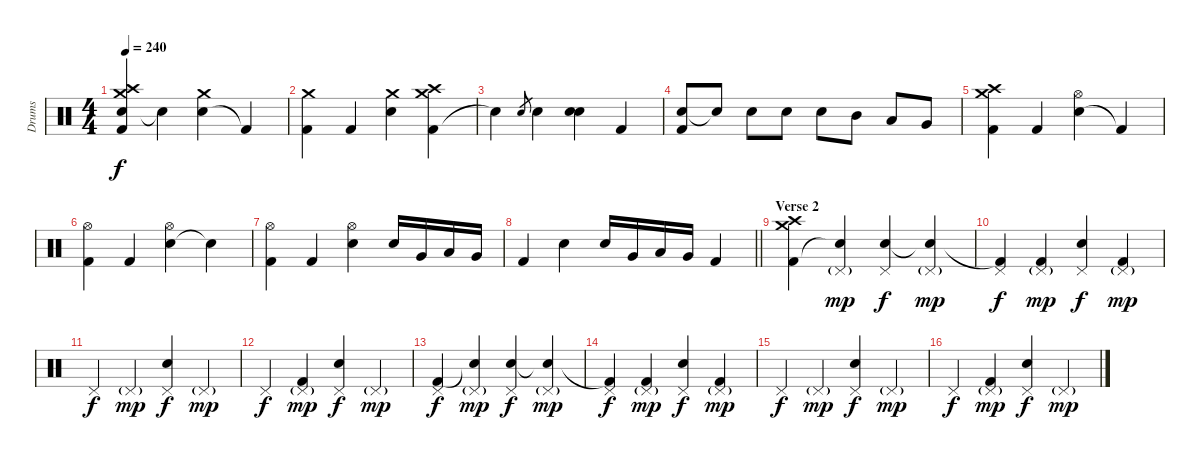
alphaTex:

\track ("Drums" "Drums") {instrument percussion}
\staff {score}
\articulation defaults
\ts (4 4)
\tempo 240
\clef neutral
\ks c
("Electric Snare (hit)" "Crash medium (hit)" "Crash high (hit)" "Kick (hit) 2").4{dy f} "Electric Snare (hit)"{t}.4 ("Electric Snare (hit)" "Crash medium (hit)").4 "Kick (hit) 2"{t}.4 |
("Kick (hit) 2" "Crash medium (hit)").4 "Kick (hit) 2".4 ("Electric Snare (hit)" "Crash medium (hit)").4 ("Kick (hit) 2" "Crash medium (hit)" "Crash high (hit)").4 |
"Snare (hit)"{t}.4 "Electric Snare (hit)".8{gr} "Electric Snare (hit)".4 ("Electric Snare (hit)" "Electric Snare (hit)").4 "Kick (hit) 2".4 |
("Electric Snare (hit)" "Kick (hit) 2").8 "Snare (hit)"{t}.8 "Electric Snare (hit)".8 "Electric Snare (hit)".8 "Electric Snare (hit)".8 "Mid Tom (hit)".8 "Low Tom (hit)".8 "Very Low Tom (hit)".8 |
("Kick (hit) 2" "Crash medium (hit)" "Crash high (hit)").4 "Kick (hit) 2".4 ("Electric Snare (hit)" "Hi-Hat (open)").4 "Kick (hit) 2"{t}.4 |
("Kick (hit) 2" "Hi-Hat (open)").4 "Kick (hit) 2".4 ("Electric Snare (hit)" "Hi-Hat (open)").4 "Snare (hit)"{t}.4 |
("Kick (hit) 2" "Hi-Hat (open)").4 "Kick (hit) 2".4 ("Electric Snare (hit)" "Hi-Hat (open)").4 "Electric Snare (hit)".16 "Very Low Tom (hit)".16 "Low Tom (hit)".16 "Very Low Tom (hit)".16 |
\barLineRight lightlight "Kick (hit) 2".4 "Electric Snare (hit)".4 "Electric Snare (hit)".16 "Very Low Tom (hit)".16 "Low Tom (hit)".16 "Very Low Tom (hit)".16 "Kick (hit) 2".4
|
\section ("" "Verse 2")
("Kick (hit) 2" "Crash medium (hit)" "Crash high (hit)").4 ("Electric Snare (hit)"{t} "Pedal Hi-Hat (hit)"{g}).4{dy mp} ("Electric Snare (hit)" "Pedal Hi-Hat (hit)").4{dy f} ("Snare (hit)"{t} "Pedal Hi-Hat (hit)"{g}).4{dy mp} |
("Kick (hit) 2"{t} "Pedal Hi-Hat (hit)").4{dy f} ("Kick (hit) 2" "Pedal Hi-Hat (hit)"{g}).4{dy mp} ("Electric Snare (hit)" "Pedal Hi-Hat (hit)").4{dy f} ("Kick (hit) 2" "Pedal Hi-Hat (hit)"{g}).4{dy mp} |
"Pedal Hi-Hat (hit)".4{dy f} "Pedal Hi-Hat (hit)"{g}.4{dy mp} ("Electric Snare (hit)" "Pedal Hi-Hat (hit)").4{dy f} "Pedal Hi-Hat (hit)"{g}.4{dy mp} |
"Pedal Hi-Hat (hit)".4{dy f} ("Kick (hit) 2" "Pedal Hi-Hat (hit)"{g}).4{dy mp} ("Electric Snare (hit)" "Pedal Hi-Hat (hit)").4{dy f} "Pedal Hi-Hat (hit)"{g}.4{dy mp} |
("Kick (hit) 2" "Pedal Hi-Hat (hit)").4{dy f} ("Electric Snare (hit)"{t} "Pedal Hi-Hat (hit)"{g}).4{dy mp} ("Electric Snare (hit)" "Pedal Hi-Hat (hit)").4{dy f} ("Snare (hit)"{t} "Pedal Hi-Hat (hit)"{g}).4{dy mp} |
("Kick (hit) 2"{t} "Pedal Hi-Hat (hit)").4{dy f} ("Kick (hit) 2" "Pedal Hi-Hat (hit)"{g}).4{dy mp} ("Electric Snare (hit)" "Pedal Hi-Hat (hit)").4{dy f} ("Kick (hit) 2" "Pedal Hi-Hat (hit)"{g}).4{dy mp} |
"Pedal Hi-Hat (hit)".4{dy f} "Pedal Hi-Hat (hit)"{g}.4{dy mp} ("Electric Snare (hit)" "Pedal Hi-Hat (hit)").4{dy f} "Pedal Hi-Hat (hit)"{g}.4{dy mp} |
"Pedal Hi-Hat (hit)".4{dy f} ("Kick (hit) 2" "Pedal Hi-Hat (hit)"{g}).4{dy mp} ("Electric Snare (hit)" "Pedal Hi-Hat (hit)").4{dy f} "Pedal Hi-Hat (hit)"{g}.4{dy mp}
